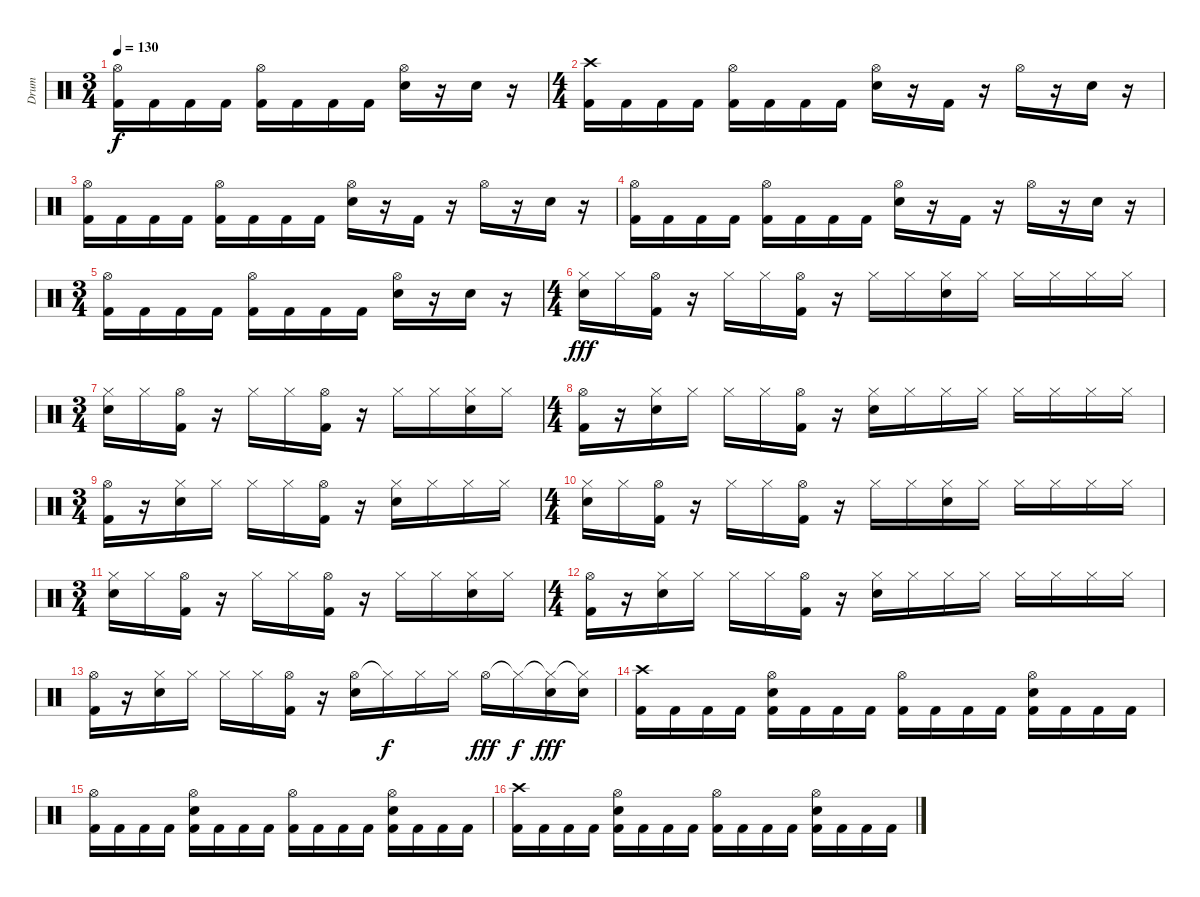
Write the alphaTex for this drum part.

\track ("Drum" "Drum") {instrument percussion}
\staff {score}
\articulation defaults
\ts (3 4)
\tempo 130
\clef neutral
\ks c
("Hi-Hat (open)" "Kick (hit) 2").16{dy f} "Kick (hit) 2".16 "Kick (hit) 2".16 "Kick (hit) 2".16 ("Hi-Hat (open)" "Kick (hit) 2").16 "Kick (hit) 2".16 "Kick (hit) 2".16 "Kick (hit) 2".16 ("Hi-Hat (open)" "Snare (hit) 2").16 r.16 "Snare (hit) 2".16 r.16 |
\ts (4 4)
("Crash high (hit)" "Kick (hit) 2").16 "Kick (hit) 2".16 "Kick (hit) 2".16 "Kick (hit) 2".16 ("Hi-Hat (open)" "Kick (hit) 2").16 "Kick (hit) 2".16 "Kick (hit) 2".16 "Kick (hit) 2".16 ("Hi-Hat (open)" "Snare (hit) 2").16 r.16 "Kick (hit) 2".16 r.16 "Hi-Hat (open)".16 r.16 "Snare (hit) 2".16 r.16 |
("Hi-Hat (open)" "Kick (hit) 2").16 "Kick (hit) 2".16 "Kick (hit) 2".16 "Kick (hit) 2".16 ("Hi-Hat (open)" "Kick (hit) 2").16 "Kick (hit) 2".16 "Kick (hit) 2".16 "Kick (hit) 2".16 ("Hi-Hat (open)" "Snare (hit) 2").16 r.16 "Kick (hit) 2".16 r.16 "Hi-Hat (open)".16 r.16 "Snare (hit) 2".16 r.16 |
("Hi-Hat (open)" "Kick (hit) 2").16 "Kick (hit) 2".16 "Kick (hit) 2".16 "Kick (hit) 2".16 ("Hi-Hat (open)" "Kick (hit) 2").16 "Kick (hit) 2".16 "Kick (hit) 2".16 "Kick (hit) 2".16 ("Hi-Hat (open)" "Snare (hit) 2").16 r.16 "Kick (hit) 2".16 r.16 "Hi-Hat (open)".16 r.16 "Snare (hit) 2".16 r.16 |
\ts (3 4)
("Hi-Hat (open)" "Kick (hit) 2").16 "Kick (hit) 2".16 "Kick (hit) 2".16 "Kick (hit) 2".16 ("Hi-Hat (open)" "Kick (hit) 2").16 "Kick (hit) 2".16 "Kick (hit) 2".16 "Kick (hit) 2".16 ("Hi-Hat (open)" "Snare (hit) 2").16 r.16 "Snare (hit) 2".16 r.16 |
\ts (4 4)
("Hi-Hat (closed)" "Snare (hit) 2").16{dy fff} "Hi-Hat (closed)".16 ("Hi-Hat (open)" "Kick (hit) 2").16 r.16 "Hi-Hat (closed)".16 "Hi-Hat (closed)".16 ("Hi-Hat (open)" "Kick (hit) 2").16 r.16 "Hi-Hat (closed)".16 "Hi-Hat (closed)".16 ("Hi-Hat (closed)" "Snare (hit) 2").16 "Hi-Hat (closed)".16 "Hi-Hat (closed)".16 "Hi-Hat (closed)".16 "Hi-Hat (closed)".16 "Hi-Hat (closed)".16 |
\ts (3 4)
("Hi-Hat (closed)" "Snare (hit) 2").16 "Hi-Hat (closed)".16 ("Hi-Hat (open)" "Kick (hit) 2").16 r.16 "Hi-Hat (closed)".16 "Hi-Hat (closed)".16 ("Hi-Hat (open)" "Kick (hit) 2").16 r.16 "Hi-Hat (closed)".16 "Hi-Hat (closed)".16 ("Hi-Hat (closed)" "Snare (hit) 2").16 "Hi-Hat (closed)".16 |
\ts (4 4)
("Hi-Hat (open)" "Kick (hit) 2").16 r.16 ("Hi-Hat (closed)" "Snare (hit) 2").16 "Hi-Hat (closed)".16 "Hi-Hat (closed)".16 "Hi-Hat (closed)".16 ("Hi-Hat (open)" "Kick (hit) 2").16 r.16 ("Hi-Hat (closed)" "Snare (hit) 2").16 "Hi-Hat (closed)".16 "Hi-Hat (closed)".16 "Hi-Hat (closed)".16 "Hi-Hat (closed)".16 "Hi-Hat (closed)".16 "Hi-Hat (closed)".16 "Hi-Hat (closed)".16 |
\ts (3 4)
("Hi-Hat (open)" "Kick (hit) 2").16 r.16 ("Hi-Hat (closed)" "Snare (hit) 2").16 "Hi-Hat (closed)".16 "Hi-Hat (closed)".16 "Hi-Hat (closed)".16 ("Hi-Hat (open)" "Kick (hit) 2").16 r.16 ("Hi-Hat (closed)" "Snare (hit) 2").16 "Hi-Hat (closed)".16 "Hi-Hat (closed)".16 "Hi-Hat (closed)".16 |
\ts (4 4)
("Hi-Hat (closed)" "Snare (hit) 2").16 "Hi-Hat (closed)".16 ("Hi-Hat (open)" "Kick (hit) 2").16 r.16 "Hi-Hat (closed)".16 "Hi-Hat (closed)".16 ("Hi-Hat (open)" "Kick (hit) 2").16 r.16 "Hi-Hat (closed)".16 "Hi-Hat (closed)".16 ("Hi-Hat (closed)" "Snare (hit) 2").16 "Hi-Hat (closed)".16 "Hi-Hat (closed)".16 "Hi-Hat (closed)".16 "Hi-Hat (closed)".16 "Hi-Hat (closed)".16 |
\ts (3 4)
("Hi-Hat (closed)" "Snare (hit) 2").16 "Hi-Hat (closed)".16 ("Hi-Hat (open)" "Kick (hit) 2").16 r.16 "Hi-Hat (closed)".16 "Hi-Hat (closed)".16 ("Hi-Hat (open)" "Kick (hit) 2").16 r.16 "Hi-Hat (closed)".16 "Hi-Hat (closed)".16 ("Hi-Hat (closed)" "Snare (hit) 2").16 "Hi-Hat (closed)".16 |
\ts (4 4)
("Hi-Hat (open)" "Kick (hit) 2").16 r.16 ("Hi-Hat (closed)" "Snare (hit) 2").16 "Hi-Hat (closed)".16 "Hi-Hat (closed)".16 "Hi-Hat (closed)".16 ("Hi-Hat (open)" "Kick (hit) 2").16 r.16 ("Hi-Hat (closed)" "Snare (hit) 2").16 "Hi-Hat (closed)".16 "Hi-Hat (closed)".16 "Hi-Hat (closed)".16 "Hi-Hat (closed)".16 "Hi-Hat (closed)".16 "Hi-Hat (closed)".16 "Hi-Hat (closed)".16 |
("Hi-Hat (open)" "Kick (hit) 2").16 r.16 ("Hi-Hat (closed)" "Snare (hit) 2").16 "Hi-Hat (closed)".16 "Hi-Hat (closed)".16 "Hi-Hat (closed)".16 ("Hi-Hat (open)" "Kick (hit) 2").16 r.16 ("Hi-Hat (open)" "Snare (hit) 2").16 "Hi-Hat (closed)"{t}.16{dy f} "Hi-Hat (closed)".16 "Hi-Hat (closed)".16 "Hi-Hat (open)".16{dy fff} "Hi-Hat (closed)"{t}.16{dy f} ("Hi-Hat (closed)"{t} "Snare (hit) 2").16{dy fff} ("Hi-Hat (closed)"{t} "Snare (hit) 2").16 |
("Crash high (hit)" "Kick (hit) 2").16 "Kick (hit) 2".16 "Kick (hit) 2".16 "Kick (hit) 2".16 ("Hi-Hat (open)" "Snare (hit) 2" "Kick (hit) 2").16 "Kick (hit) 2".16 "Kick (hit) 2".16 "Kick (hit) 2".16 ("Hi-Hat (open)" "Kick (hit) 2").16 "Kick (hit) 2".16 "Kick (hit) 2".16 "Kick (hit) 2".16 ("Hi-Hat (open)" "Snare (hit) 2" "Kick (hit) 2").16 "Kick (hit) 2".16 "Kick (hit) 2".16 "Kick (hit) 2".16 |
("Hi-Hat (open)" "Kick (hit) 2").16 "Kick (hit) 2".16 "Kick (hit) 2".16 "Kick (hit) 2".16 ("Hi-Hat (open)" "Snare (hit) 2" "Kick (hit) 2").16 "Kick (hit) 2".16 "Kick (hit) 2".16 "Kick (hit) 2".16 ("Hi-Hat (open)" "Kick (hit) 2").16 "Kick (hit) 2".16 "Kick (hit) 2".16 "Kick (hit) 2".16 ("Hi-Hat (open)" "Snare (hit) 2" "Kick (hit) 2").16 "Kick (hit) 2".16 "Kick (hit) 2".16 "Kick (hit) 2".16 |
("Crash high (hit)" "Kick (hit) 2").16 "Kick (hit) 2".16 "Kick (hit) 2".16 "Kick (hit) 2".16 ("Hi-Hat (open)" "Snare (hit) 2" "Kick (hit) 2").16 "Kick (hit) 2".16 "Kick (hit) 2".16 "Kick (hit) 2".16 ("Hi-Hat (open)" "Kick (hit) 2").16 "Kick (hit) 2".16 "Kick (hit) 2".16 "Kick (hit) 2".16 ("Hi-Hat (open)" "Snare (hit) 2" "Kick (hit) 2").16 "Kick (hit) 2".16 "Kick (hit) 2".16 "Kick (hit) 2".16
